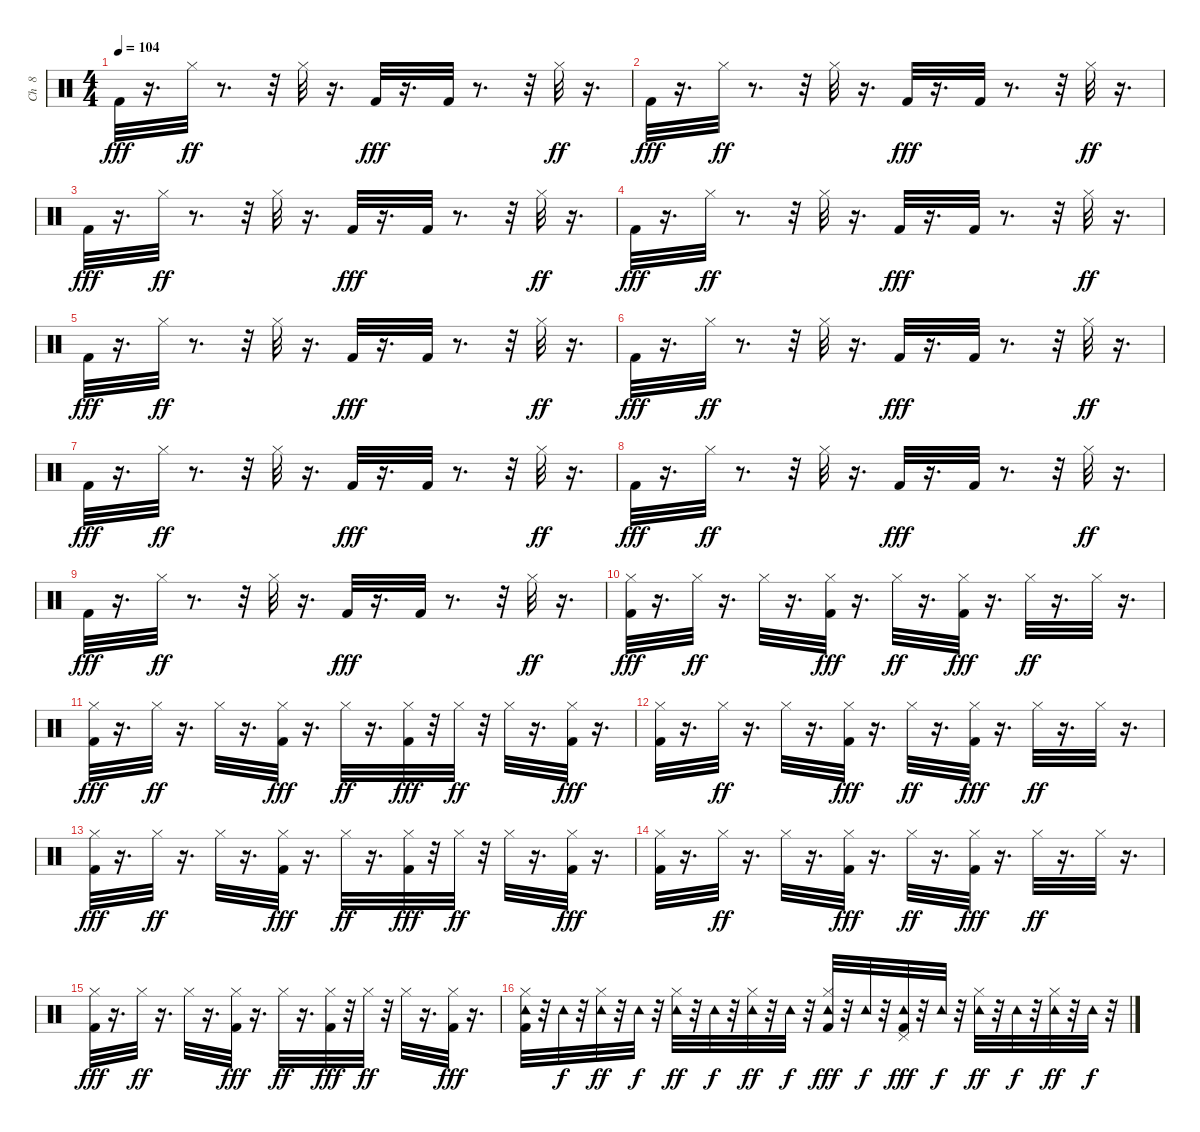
\track ("Ch  8   " "Ch  8   ") {instrument percussion}
\staff {score}
\articulation defaults
\ts (4 4)
\tempo 104
\clef neutral
\ks c "Kick (hit) 2".32{dy fff}
r.16{d} "Hi-Hat (closed)".32{dy ff} r.8{d} r.32 "Hi-Hat (closed)".32 r.16{d} "Kick (hit) 2".32{dy fff} r.16{d} "Kick (hit) 2".32 r.8{d} r.32 "Hi-Hat (closed)".32{dy ff} r.16{d} |
"Kick (hit) 2".32{dy fff} r.16{d} "Hi-Hat (closed)".32{dy ff} r.8{d} r.32 "Hi-Hat (closed)".32 r.16{d} "Kick (hit) 2".32{dy fff} r.16{d} "Kick (hit) 2".32 r.8{d} r.32 "Hi-Hat (closed)".32{dy ff} r.16{d} |
"Kick (hit) 2".32{dy fff} r.16{d} "Hi-Hat (closed)".32{dy ff} r.8{d} r.32 "Hi-Hat (closed)".32 r.16{d} "Kick (hit) 2".32{dy fff} r.16{d} "Kick (hit) 2".32 r.8{d} r.32 "Hi-Hat (closed)".32{dy ff} r.16{d} |
"Kick (hit) 2".32{dy fff} r.16{d} "Hi-Hat (closed)".32{dy ff} r.8{d} r.32 "Hi-Hat (closed)".32 r.16{d} "Kick (hit) 2".32{dy fff} r.16{d} "Kick (hit) 2".32 r.8{d} r.32 "Hi-Hat (closed)".32{dy ff} r.16{d} |
"Kick (hit) 2".32{dy fff} r.16{d} "Hi-Hat (closed)".32{dy ff} r.8{d} r.32 "Hi-Hat (closed)".32 r.16{d} "Kick (hit) 2".32{dy fff} r.16{d} "Kick (hit) 2".32 r.8{d} r.32 "Hi-Hat (closed)".32{dy ff} r.16{d} |
"Kick (hit) 2".32{dy fff} r.16{d} "Hi-Hat (closed)".32{dy ff} r.8{d} r.32 "Hi-Hat (closed)".32 r.16{d} "Kick (hit) 2".32{dy fff} r.16{d} "Kick (hit) 2".32 r.8{d} r.32 "Hi-Hat (closed)".32{dy ff} r.16{d} |
"Kick (hit) 2".32{dy fff} r.16{d} "Hi-Hat (closed)".32{dy ff} r.8{d} r.32 "Hi-Hat (closed)".32 r.16{d} "Kick (hit) 2".32{dy fff} r.16{d} "Kick (hit) 2".32 r.8{d} r.32 "Hi-Hat (closed)".32{dy ff} r.16{d} |
"Kick (hit) 2".32{dy fff} r.16{d} "Hi-Hat (closed)".32{dy ff} r.8{d} r.32 "Hi-Hat (closed)".32 r.16{d} "Kick (hit) 2".32{dy fff} r.16{d} "Kick (hit) 2".32 r.8{d} r.32 "Hi-Hat (closed)".32{dy ff} r.16{d} |
"Kick (hit) 2".32{dy fff} r.16{d} "Hi-Hat (closed)".32{dy ff} r.8{d} r.32 "Hi-Hat (closed)".32 r.16{d} "Kick (hit) 2".32{dy fff} r.16{d} "Kick (hit) 2".32 r.8{d} r.32 "Hi-Hat (closed)".32{dy ff} r.16{d} |
("Hi-Hat (closed)" "Kick (hit) 2").32{dy fff} r.16{d} "Hi-Hat (closed)".32{dy ff} r.16{d} "Hi-Hat (closed)".32 r.16{d} ("Hi-Hat (closed)" "Kick (hit) 2").32{dy fff} r.16{d} "Hi-Hat (closed)".32{dy ff} r.16{d} ("Hi-Hat (closed)" "Kick (hit) 2").32{dy fff} r.16{d} "Hi-Hat (closed)".32{dy ff} r.16{d} "Hi-Hat (closed)".32 r.16{d} |
("Hi-Hat (closed)" "Kick (hit) 2").32{dy fff} r.16{d} "Hi-Hat (closed)".32{dy ff} r.16{d} "Hi-Hat (closed)".32 r.16{d} ("Hi-Hat (closed)" "Kick (hit) 2").32{dy fff} r.16{d} "Hi-Hat (closed)".32{dy ff} r.16{d} ("Hi-Hat (closed)" "Kick (hit) 2").32{dy fff} r.32 "Hi-Hat (closed)".32{dy ff} r.32 "Hi-Hat (closed)".32 r.16{d} ("Hi-Hat (closed)" "Kick (hit) 2").32{dy fff} r.16{d} |
("Hi-Hat (closed)" "Kick (hit) 2").32 r.16{d} "Hi-Hat (closed)".32{dy ff} r.16{d} "Hi-Hat (closed)".32 r.16{d} ("Hi-Hat (closed)" "Kick (hit) 2").32{dy fff} r.16{d} "Hi-Hat (closed)".32{dy ff} r.16{d} ("Hi-Hat (closed)" "Kick (hit) 2").32{dy fff} r.16{d} "Hi-Hat (closed)".32{dy ff} r.16{d} "Hi-Hat (closed)".32 r.16{d} |
("Hi-Hat (closed)" "Kick (hit) 2").32{dy fff} r.16{d} "Hi-Hat (closed)".32{dy ff} r.16{d} "Hi-Hat (closed)".32 r.16{d} ("Hi-Hat (closed)" "Kick (hit) 2").32{dy fff} r.16{d} "Hi-Hat (closed)".32{dy ff} r.16{d} ("Hi-Hat (closed)" "Kick (hit) 2").32{dy fff} r.32 "Hi-Hat (closed)".32{dy ff} r.32 "Hi-Hat (closed)".32 r.16{d} ("Hi-Hat (closed)" "Kick (hit) 2").32{dy fff} r.16{d} |
("Hi-Hat (closed)" "Kick (hit) 2").32 r.16{d} "Hi-Hat (closed)".32{dy ff} r.16{d} "Hi-Hat (closed)".32 r.16{d} ("Hi-Hat (closed)" "Kick (hit) 2").32{dy fff} r.16{d} "Hi-Hat (closed)".32{dy ff} r.16{d} ("Hi-Hat (closed)" "Kick (hit) 2").32{dy fff} r.16{d} "Hi-Hat (closed)".32{dy ff} r.16{d} "Hi-Hat (closed)".32 r.16{d} |
("Hi-Hat (closed)" "Kick (hit) 2").32{dy fff} r.16{d} "Hi-Hat (closed)".32{dy ff} r.16{d} "Hi-Hat (closed)".32 r.16{d} ("Hi-Hat (closed)" "Kick (hit) 2").32{dy fff} r.16{d} "Hi-Hat (closed)".32{dy ff} r.16{d} ("Hi-Hat (closed)" "Kick (hit) 2").32{dy fff} r.32 "Hi-Hat (closed)".32{dy ff} r.32 "Hi-Hat (closed)".32 r.16{d} ("Hi-Hat (closed)" "Kick (hit) 2").32{dy fff} r.16{d} |
("Tambourine (hit)" "Hi-Hat (closed)" "Kick (hit) 2").32 r.32 "Tambourine (hit)".32{dy f} r.32 ("Tambourine (hit)" "Hi-Hat (closed)").32{dy ff} r.32 "Tambourine (hit)".32{dy f} r.32 ("Tambourine (hit)" "Hi-Hat (closed)").32{dy ff} r.32 "Tambourine (hit)".32{dy f} r.32 ("Tambourine (hit)" "Hi-Hat (closed)").32{dy ff} r.32 "Tambourine (hit)".32{dy f} r.32 ("Tambourine (hit)" "Hi-Hat (closed)" "Kick (hit) 2").32{dy fff} r.32 "Tambourine (hit)".32{dy f} r.32 ("Pedal Hi-Hat (hit)" "Tambourine (hit)" "Kick (hit) 2").32{dy fff} r.32 "Tambourine (hit)".32{dy f} r.32 ("Tambourine (hit)" "Hi-Hat (closed)").32{dy ff} r.32 "Tambourine (hit)".32{dy f} r.32 ("Tambourine (hit)" "Hi-Hat (closed)").32{dy ff} r.32 "Tambourine (hit)".32{dy f} r.32
